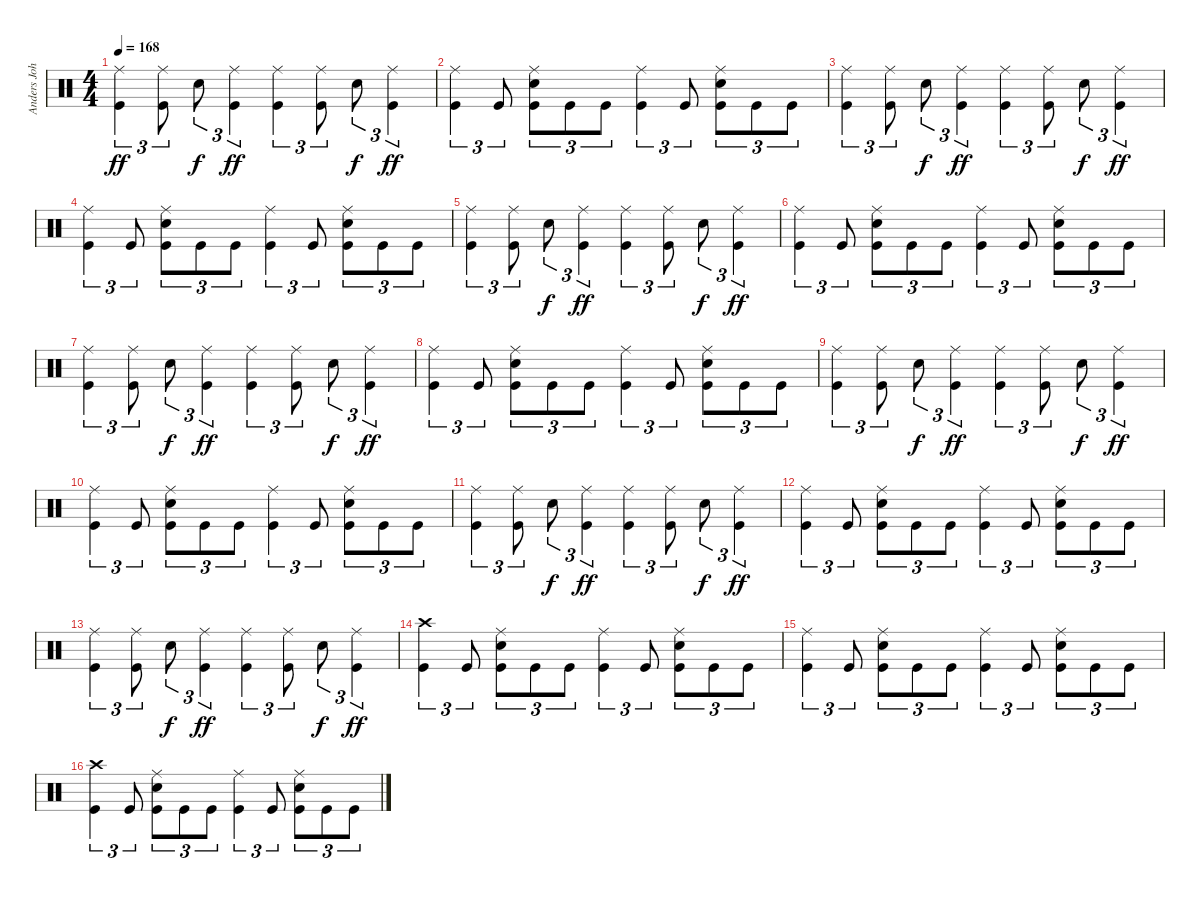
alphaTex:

\track ("Anders Johansson (Drums)" "Anders Joh") {instrument percussion}
\staff {score}
\articulation defaults
\ts (4 4)
\tempo 168
\clef neutral
\ks c
("Ride (middle)" "Kick (hit)").4{tu (3 2) dy ff} ("Ride (middle)" "Kick (hit)").8{tu (3 2)} "Electric Snare (hit)".8{tu (3 2) dy f} ("Ride (middle)" "Kick (hit)").4{tu (3 2) dy ff} ("Ride (middle)" "Kick (hit)").4{tu (3 2)} ("Ride (middle)" "Kick (hit)").8{tu (3 2)} "Electric Snare (hit)".8{tu (3 2) dy f} ("Ride (middle)" "Kick (hit)").4{tu (3 2) dy ff} |
("Ride (middle)" "Kick (hit)").4{tu (3 2)} "Kick (hit)".8{tu (3 2)} ("Ride (middle)" "Electric Snare (hit)" "Kick (hit)").8{tu (3 2)} "Kick (hit)".8{tu (3 2)} "Kick (hit)".8{tu (3 2)} ("Ride (middle)" "Kick (hit)").4{tu (3 2)} "Kick (hit)".8{tu (3 2)} ("Ride (middle)" "Electric Snare (hit)" "Kick (hit)").8{tu (3 2)} "Kick (hit)".8{tu (3 2)} "Kick (hit)".8{tu (3 2)} |
("Ride (middle)" "Kick (hit)").4{tu (3 2)} ("Ride (middle)" "Kick (hit)").8{tu (3 2)} "Electric Snare (hit)".8{tu (3 2) dy f} ("Ride (middle)" "Kick (hit)").4{tu (3 2) dy ff} ("Ride (middle)" "Kick (hit)").4{tu (3 2)} ("Ride (middle)" "Kick (hit)").8{tu (3 2)} "Electric Snare (hit)".8{tu (3 2) dy f} ("Ride (middle)" "Kick (hit)").4{tu (3 2) dy ff} |
("Ride (middle)" "Kick (hit)").4{tu (3 2)} "Kick (hit)".8{tu (3 2)} ("Ride (middle)" "Electric Snare (hit)" "Kick (hit)").8{tu (3 2)} "Kick (hit)".8{tu (3 2)} "Kick (hit)".8{tu (3 2)} ("Ride (middle)" "Kick (hit)").4{tu (3 2)} "Kick (hit)".8{tu (3 2)} ("Ride (middle)" "Electric Snare (hit)" "Kick (hit)").8{tu (3 2)} "Kick (hit)".8{tu (3 2)} "Kick (hit)".8{tu (3 2)} |
("Ride (middle)" "Kick (hit)").4{tu (3 2)} ("Ride (middle)" "Kick (hit)").8{tu (3 2)} "Electric Snare (hit)".8{tu (3 2) dy f} ("Ride (middle)" "Kick (hit)").4{tu (3 2) dy ff} ("Ride (middle)" "Kick (hit)").4{tu (3 2)} ("Ride (middle)" "Kick (hit)").8{tu (3 2)} "Electric Snare (hit)".8{tu (3 2) dy f} ("Ride (middle)" "Kick (hit)").4{tu (3 2) dy ff} |
("Ride (middle)" "Kick (hit)").4{tu (3 2)} "Kick (hit)".8{tu (3 2)} ("Ride (middle)" "Electric Snare (hit)" "Kick (hit)").8{tu (3 2)} "Kick (hit)".8{tu (3 2)} "Kick (hit)".8{tu (3 2)} ("Ride (middle)" "Kick (hit)").4{tu (3 2)} "Kick (hit)".8{tu (3 2)} ("Ride (middle)" "Electric Snare (hit)" "Kick (hit)").8{tu (3 2)} "Kick (hit)".8{tu (3 2)} "Kick (hit)".8{tu (3 2)} |
("Ride (middle)" "Kick (hit)").4{tu (3 2)} ("Ride (middle)" "Kick (hit)").8{tu (3 2)} "Electric Snare (hit)".8{tu (3 2) dy f} ("Ride (middle)" "Kick (hit)").4{tu (3 2) dy ff} ("Ride (middle)" "Kick (hit)").4{tu (3 2)} ("Ride (middle)" "Kick (hit)").8{tu (3 2)} "Electric Snare (hit)".8{tu (3 2) dy f} ("Ride (middle)" "Kick (hit)").4{tu (3 2) dy ff} |
("Ride (middle)" "Kick (hit)").4{tu (3 2)} "Kick (hit)".8{tu (3 2)} ("Ride (middle)" "Electric Snare (hit)" "Kick (hit)").8{tu (3 2)} "Kick (hit)".8{tu (3 2)} "Kick (hit)".8{tu (3 2)} ("Ride (middle)" "Kick (hit)").4{tu (3 2)} "Kick (hit)".8{tu (3 2)} ("Ride (middle)" "Electric Snare (hit)" "Kick (hit)").8{tu (3 2)} "Kick (hit)".8{tu (3 2)} "Kick (hit)".8{tu (3 2)} |
("Ride (middle)" "Kick (hit)").4{tu (3 2)} ("Ride (middle)" "Kick (hit)").8{tu (3 2)} "Electric Snare (hit)".8{tu (3 2) dy f} ("Ride (middle)" "Kick (hit)").4{tu (3 2) dy ff} ("Ride (middle)" "Kick (hit)").4{tu (3 2)} ("Ride (middle)" "Kick (hit)").8{tu (3 2)} "Electric Snare (hit)".8{tu (3 2) dy f} ("Ride (middle)" "Kick (hit)").4{tu (3 2) dy ff} |
("Ride (middle)" "Kick (hit)").4{tu (3 2)} "Kick (hit)".8{tu (3 2)} ("Ride (middle)" "Electric Snare (hit)" "Kick (hit)").8{tu (3 2)} "Kick (hit)".8{tu (3 2)} "Kick (hit)".8{tu (3 2)} ("Ride (middle)" "Kick (hit)").4{tu (3 2)} "Kick (hit)".8{tu (3 2)} ("Ride (middle)" "Electric Snare (hit)" "Kick (hit)").8{tu (3 2)} "Kick (hit)".8{tu (3 2)} "Kick (hit)".8{tu (3 2)} |
("Ride (middle)" "Kick (hit)").4{tu (3 2)} ("Ride (middle)" "Kick (hit)").8{tu (3 2)} "Electric Snare (hit)".8{tu (3 2) dy f} ("Ride (middle)" "Kick (hit)").4{tu (3 2) dy ff} ("Ride (middle)" "Kick (hit)").4{tu (3 2)} ("Ride (middle)" "Kick (hit)").8{tu (3 2)} "Electric Snare (hit)".8{tu (3 2) dy f} ("Ride (middle)" "Kick (hit)").4{tu (3 2) dy ff} |
("Ride (middle)" "Kick (hit)").4{tu (3 2)} "Kick (hit)".8{tu (3 2)} ("Ride (middle)" "Electric Snare (hit)" "Kick (hit)").8{tu (3 2)} "Kick (hit)".8{tu (3 2)} "Kick (hit)".8{tu (3 2)} ("Ride (middle)" "Kick (hit)").4{tu (3 2)} "Kick (hit)".8{tu (3 2)} ("Ride (middle)" "Electric Snare (hit)" "Kick (hit)").8{tu (3 2)} "Kick (hit)".8{tu (3 2)} "Kick (hit)".8{tu (3 2)} |
("Ride (middle)" "Kick (hit)").4{tu (3 2)} ("Ride (middle)" "Kick (hit)").8{tu (3 2)} "Electric Snare (hit)".8{tu (3 2) dy f} ("Ride (middle)" "Kick (hit)").4{tu (3 2) dy ff} ("Ride (middle)" "Kick (hit)").4{tu (3 2)} ("Ride (middle)" "Kick (hit)").8{tu (3 2)} "Electric Snare (hit)".8{tu (3 2) dy f} ("Ride (middle)" "Kick (hit)").4{tu (3 2) dy ff} |
("Crash high (hit)" "Kick (hit)").4{tu (3 2)} "Kick (hit)".8{tu (3 2)} ("Ride (middle)" "Electric Snare (hit)" "Kick (hit)").8{tu (3 2)} "Kick (hit)".8{tu (3 2)} "Kick (hit)".8{tu (3 2)} ("Ride (middle)" "Kick (hit)").4{tu (3 2)} "Kick (hit)".8{tu (3 2)} ("Ride (middle)" "Electric Snare (hit)" "Kick (hit)").8{tu (3 2)} "Kick (hit)".8{tu (3 2)} "Kick (hit)".8{tu (3 2)} |
("Ride (middle)" "Kick (hit)").4{tu (3 2)} "Kick (hit)".8{tu (3 2)} ("Ride (middle)" "Electric Snare (hit)" "Kick (hit)").8{tu (3 2)} "Kick (hit)".8{tu (3 2)} "Kick (hit)".8{tu (3 2)} ("Ride (middle)" "Kick (hit)").4{tu (3 2)} "Kick (hit)".8{tu (3 2)} ("Ride (middle)" "Electric Snare (hit)" "Kick (hit)").8{tu (3 2)} "Kick (hit)".8{tu (3 2)} "Kick (hit)".8{tu (3 2)} |
("Crash high (hit)" "Kick (hit)").4{tu (3 2)} "Kick (hit)".8{tu (3 2)} ("Ride (middle)" "Electric Snare (hit)" "Kick (hit)").8{tu (3 2)} "Kick (hit)".8{tu (3 2)} "Kick (hit)".8{tu (3 2)} ("Ride (middle)" "Kick (hit)").4{tu (3 2)} "Kick (hit)".8{tu (3 2)} ("Ride (middle)" "Electric Snare (hit)" "Kick (hit)").8{tu (3 2)} "Kick (hit)".8{tu (3 2)} "Kick (hit)".8{tu (3 2)}
